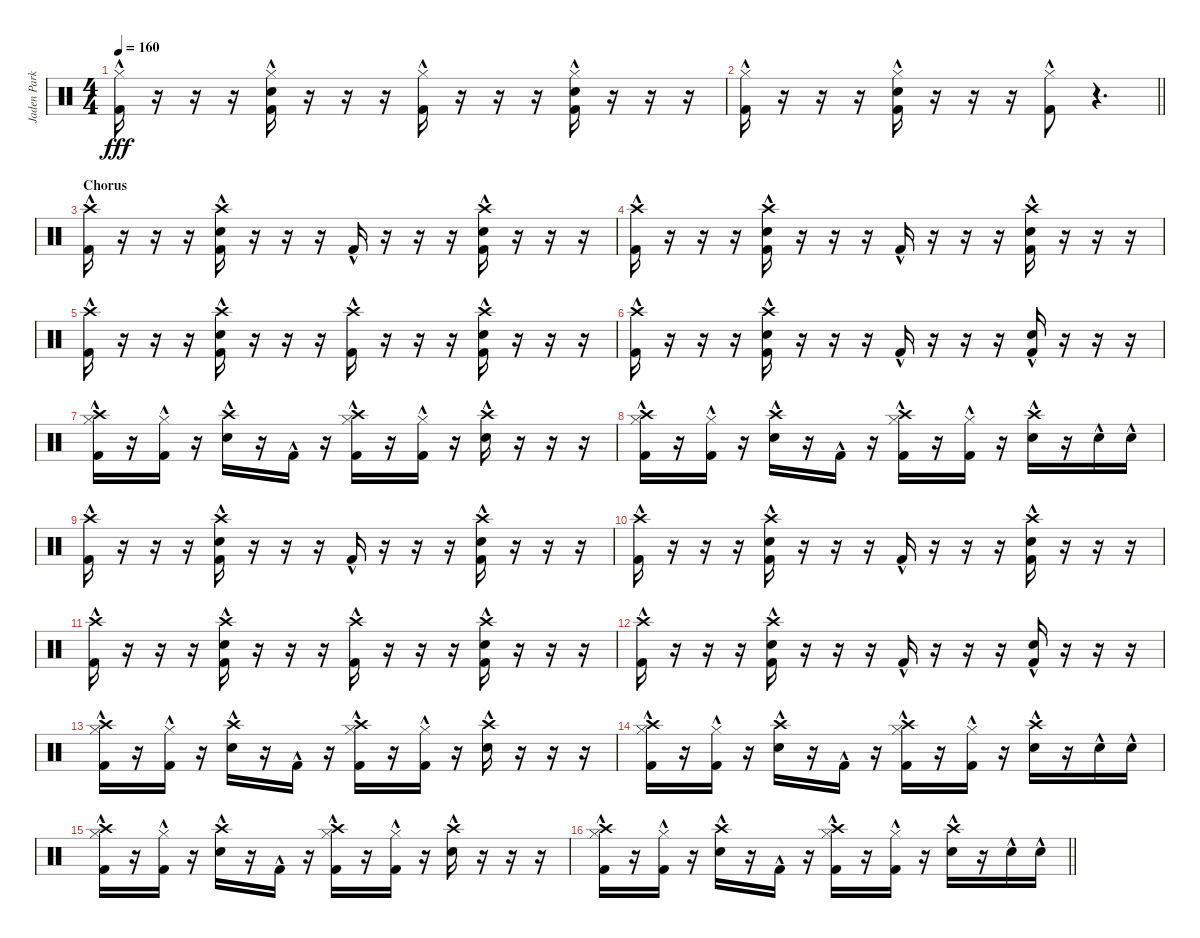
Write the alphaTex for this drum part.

\track ("Jaden Parkes" "Jaden Park") {instrument percussion}
\staff {score}
\articulation defaults
\ts (4 4)
\tempo 160
\clef neutral
\ks c
("Hi-Hat (closed)" "Kick (hit) 2"{hac}).16{dy fff} r.16 r.16 r.16 ("Hi-Hat (closed)"{hac} "Electric Snare (hit)" "Kick (hit) 2"{hac}).16 r.16 r.16 r.16 ("Hi-Hat (closed)" "Kick (hit) 2"{hac}).16 r.16 r.16 r.16 ("Hi-Hat (closed)"{hac} "Electric Snare (hit)" "Kick (hit) 2"{hac}).16 r.16 r.16 r.16 |
\barLineRight lightlight
("Hi-Hat (closed)" "Kick (hit) 2"{hac}).16 r.16 r.16 r.16 ("Hi-Hat (closed)"{hac} "Electric Snare (hit)" "Kick (hit) 2"{hac}).16 r.16 r.16 r.16 ("Hi-Hat (closed)" "Kick (hit) 2"{hac}).8 r.4{d} |
\section ("" "Chorus")
("Crash high (hit)" "Kick (hit) 2"{hac}).16 r.16 r.16 r.16 ("Crash high (hit)"{hac} "Electric Snare (hit)" "Kick (hit) 2"{hac}).16 r.16 r.16 r.16 "Kick (hit) 2"{hac}.16 r.16 r.16 r.16 ("Crash high (hit)"{hac} "Electric Snare (hit)" "Kick (hit) 2"{hac}).16 r.16 r.16 r.16 |
("Crash high (hit)" "Kick (hit) 2"{hac}).16 r.16 r.16 r.16 ("Crash high (hit)"{hac} "Electric Snare (hit)" "Kick (hit) 2"{hac}).16 r.16 r.16 r.16 "Kick (hit) 2"{hac}.16 r.16 r.16 r.16 ("Crash high (hit)"{hac} "Electric Snare (hit)" "Kick (hit) 2"{hac}).16 r.16 r.16 r.16 |
("Crash high (hit)" "Kick (hit) 2"{hac}).16 r.16 r.16 r.16 ("Crash high (hit)"{hac} "Electric Snare (hit)" "Kick (hit) 2"{hac}).16 r.16 r.16 r.16 ("Crash high (hit)" "Kick (hit) 2"{hac}).16 r.16 r.16 r.16 ("Crash high (hit)"{hac} "Electric Snare (hit)" "Kick (hit) 2"{hac}).16 r.16 r.16 r.16 |
("Crash high (hit)" "Kick (hit) 2"{hac}).16 r.16 r.16 r.16 ("Crash high (hit)"{hac} "Electric Snare (hit)" "Kick (hit) 2"{hac}).16 r.16 r.16 r.16 "Kick (hit) 2"{hac}.16 r.16 r.16 r.16 ("Electric Snare (hit)" "Kick (hit) 2"{hac}).16 r.16 r.16 r.16 |
("Hi-Hat (closed)"{hac} "Crash high (hit)" "Kick (hit) 2"{hac}).16 r.16 ("Hi-Hat (closed)"{hac} "Kick (hit) 2"{hac}).16 r.16 ("Crash high (hit)"{hac} "Electric Snare (hit)"{hac}).16 r.16 "Kick (hit) 2"{hac}.16 r.16 ("Hi-Hat (closed)"{hac} "Crash high (hit)" "Kick (hit) 2"{hac}).16 r.16 ("Hi-Hat (closed)"{hac} "Kick (hit) 2"{hac}).16 r.16 ("Crash high (hit)"{hac} "Electric Snare (hit)"{hac}).16 r.16 r.16 r.16 |
("Hi-Hat (closed)"{hac} "Crash high (hit)" "Kick (hit) 2"{hac}).16 r.16 ("Hi-Hat (closed)"{hac} "Kick (hit) 2"{hac}).16 r.16 ("Crash high (hit)"{hac} "Electric Snare (hit)"{hac}).16 r.16 "Kick (hit) 2"{hac}.16 r.16 ("Hi-Hat (closed)"{hac} "Crash high (hit)" "Kick (hit) 2"{hac}).16 r.16 ("Hi-Hat (closed)"{hac} "Kick (hit) 2"{hac}).16 r.16 ("Crash high (hit)"{hac} "Electric Snare (hit)"{hac}).16 r.16 "Electric Snare (hit)"{hac}.16 "Electric Snare (hit)"{hac}.16 |
("Crash high (hit)" "Kick (hit) 2"{hac}).16 r.16 r.16 r.16 ("Crash high (hit)"{hac} "Electric Snare (hit)" "Kick (hit) 2"{hac}).16 r.16 r.16 r.16 "Kick (hit) 2"{hac}.16 r.16 r.16 r.16 ("Crash high (hit)"{hac} "Electric Snare (hit)" "Kick (hit) 2"{hac}).16 r.16 r.16 r.16 |
("Crash high (hit)" "Kick (hit) 2"{hac}).16 r.16 r.16 r.16 ("Crash high (hit)"{hac} "Electric Snare (hit)" "Kick (hit) 2"{hac}).16 r.16 r.16 r.16 "Kick (hit) 2"{hac}.16 r.16 r.16 r.16 ("Crash high (hit)"{hac} "Electric Snare (hit)" "Kick (hit) 2"{hac}).16 r.16 r.16 r.16 |
("Crash high (hit)" "Kick (hit) 2"{hac}).16 r.16 r.16 r.16 ("Crash high (hit)"{hac} "Electric Snare (hit)" "Kick (hit) 2"{hac}).16 r.16 r.16 r.16 ("Crash high (hit)" "Kick (hit) 2"{hac}).16 r.16 r.16 r.16 ("Crash high (hit)"{hac} "Electric Snare (hit)" "Kick (hit) 2"{hac}).16 r.16 r.16 r.16 |
("Crash high (hit)" "Kick (hit) 2"{hac}).16 r.16 r.16 r.16 ("Crash high (hit)"{hac} "Electric Snare (hit)" "Kick (hit) 2"{hac}).16 r.16 r.16 r.16 "Kick (hit) 2"{hac}.16 r.16 r.16 r.16 ("Electric Snare (hit)" "Kick (hit) 2"{hac}).16 r.16 r.16 r.16 |
("Hi-Hat (closed)"{hac} "Crash high (hit)" "Kick (hit) 2"{hac}).16 r.16 ("Hi-Hat (closed)"{hac} "Kick (hit) 2"{hac}).16 r.16 ("Crash high (hit)"{hac} "Electric Snare (hit)"{hac}).16 r.16 "Kick (hit) 2"{hac}.16 r.16 ("Hi-Hat (closed)"{hac} "Crash high (hit)" "Kick (hit) 2"{hac}).16 r.16 ("Hi-Hat (closed)"{hac} "Kick (hit) 2"{hac}).16 r.16 ("Crash high (hit)"{hac} "Electric Snare (hit)"{hac}).16 r.16 r.16 r.16 |
("Hi-Hat (closed)"{hac} "Crash high (hit)" "Kick (hit) 2"{hac}).16 r.16 ("Hi-Hat (closed)"{hac} "Kick (hit) 2"{hac}).16 r.16 ("Crash high (hit)"{hac} "Electric Snare (hit)"{hac}).16 r.16 "Kick (hit) 2"{hac}.16 r.16 ("Hi-Hat (closed)"{hac} "Crash high (hit)" "Kick (hit) 2"{hac}).16 r.16 ("Hi-Hat (closed)"{hac} "Kick (hit) 2"{hac}).16 r.16 ("Crash high (hit)"{hac} "Electric Snare (hit)"{hac}).16 r.16 "Electric Snare (hit)"{hac}.16 "Electric Snare (hit)"{hac}.16 |
("Hi-Hat (closed)"{hac} "Crash high (hit)" "Kick (hit) 2"{hac}).16 r.16 ("Hi-Hat (closed)"{hac} "Kick (hit) 2"{hac}).16 r.16 ("Crash high (hit)"{hac} "Electric Snare (hit)"{hac}).16 r.16 "Kick (hit) 2"{hac}.16 r.16 ("Hi-Hat (closed)"{hac} "Crash high (hit)" "Kick (hit) 2"{hac}).16 r.16 ("Hi-Hat (closed)"{hac} "Kick (hit) 2"{hac}).16 r.16 ("Crash high (hit)"{hac} "Electric Snare (hit)"{hac}).16 r.16 r.16 r.16 |
\barLineRight lightlight
("Hi-Hat (closed)"{hac} "Crash high (hit)" "Kick (hit) 2"{hac}).16 r.16 ("Hi-Hat (closed)"{hac} "Kick (hit) 2"{hac}).16 r.16 ("Crash high (hit)"{hac} "Electric Snare (hit)"{hac}).16 r.16 "Kick (hit) 2"{hac}.16 r.16 ("Hi-Hat (closed)"{hac} "Crash high (hit)" "Kick (hit) 2"{hac}).16 r.16 ("Hi-Hat (closed)"{hac} "Kick (hit) 2"{hac}).16 r.16 ("Crash high (hit)"{hac} "Electric Snare (hit)"{hac}).16 r.16 "Electric Snare (hit)"{hac}.16 "Electric Snare (hit)"{hac}.16
